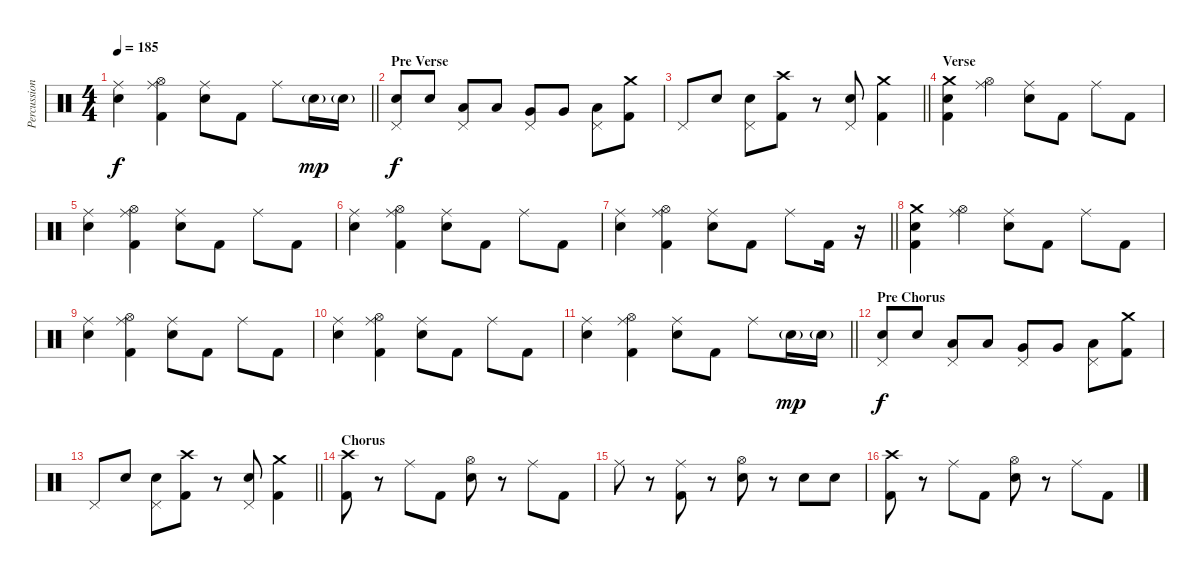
\track ("Percussion" "Percussion") {instrument percussion}
\staff {score}
\articulation defaults
\ts (4 4)
\tempo 185
\clef neutral
\barLineRight lightlight
\ks c
("Ride (middle)" "Electric Snare (hit)").4{dy f} ("Hi-Hat (open)" "Ride (middle)" "Kick (hit) 2").4 ("Ride (middle)" "Electric Snare (hit)").8 "Kick (hit) 2".8 "Ride (middle)".8 "Electric Snare (hit)"{g}.16{dy mp} "Electric Snare (hit)"{g}.16 |
\section ("" "Pre Verse")
("Pedal Hi-Hat (hit)" "Electric Snare (hit)").8{dy f} "Electric Snare (hit)".8 ("Pedal Hi-Hat (hit)" "Low Tom (hit)").8 "Low Tom (hit)".8 ("Pedal Hi-Hat (hit)" "Very Low Tom (hit)").8 "Very Low Tom (hit)".8 ("Pedal Hi-Hat (hit)" "Low Floor Tom (hit)").8 ("Crash medium (hit)" "Kick (hit) 2").8 |
\barLineRight lightlight "Pedal Hi-Hat (hit)".8 "Electric Snare (hit)".8
("Pedal Hi-Hat (hit)" "Electric Snare (hit)").8 ("Crash high (hit)" "Kick (hit) 2").8 r.8 ("Pedal Hi-Hat (hit)" "Electric Snare (hit)").8 ("Crash medium (hit)" "Kick (hit) 2").4 |
\section ("" "Verse")
("Crash medium (hit)" "Electric Snare (hit)" "Kick (hit) 2").4 ("Hi-Hat (open)" "Ride (middle)").4 ("Ride (middle)" "Electric Snare (hit)").8 "Kick (hit) 2".8 "Ride (middle)".8 "Kick (hit) 2".8 |
("Ride (middle)" "Electric Snare (hit)").4 ("Hi-Hat (open)" "Ride (middle)" "Kick (hit) 2").4 ("Ride (middle)" "Electric Snare (hit)").8 "Kick (hit) 2".8 "Ride (middle)".8 "Kick (hit) 2".8 |
("Ride (middle)" "Electric Snare (hit)").4 ("Hi-Hat (open)" "Ride (middle)" "Kick (hit) 2").4 ("Ride (middle)" "Electric Snare (hit)").8 "Kick (hit) 2".8 "Ride (middle)".8 "Kick (hit) 2".8 |
\barLineRight lightlight
("Ride (middle)" "Electric Snare (hit)").4 ("Hi-Hat (open)" "Ride (middle)" "Kick (hit) 2").4 ("Ride (middle)" "Electric Snare (hit)").8 "Kick (hit) 2".8 "Ride (middle)".8 "Kick (hit) 2".16 r.16 |
("Crash medium (hit)" "Electric Snare (hit)" "Kick (hit) 2").4 ("Hi-Hat (open)" "Ride (middle)").4 ("Ride (middle)" "Electric Snare (hit)").8 "Kick (hit) 2".8 "Ride (middle)".8 "Kick (hit) 2".8 |
("Ride (middle)" "Electric Snare (hit)").4 ("Hi-Hat (open)" "Ride (middle)" "Kick (hit) 2").4 ("Ride (middle)" "Electric Snare (hit)").8 "Kick (hit) 2".8 "Ride (middle)".8 "Kick (hit) 2".8 |
("Ride (middle)" "Electric Snare (hit)").4 ("Hi-Hat (open)" "Ride (middle)" "Kick (hit) 2").4 ("Ride (middle)" "Electric Snare (hit)").8 "Kick (hit) 2".8 "Ride (middle)".8 "Kick (hit) 2".8 |
\barLineRight lightlight
("Ride (middle)" "Electric Snare (hit)").4 ("Hi-Hat (open)" "Ride (middle)" "Kick (hit) 2").4 ("Ride (middle)" "Electric Snare (hit)").8 "Kick (hit) 2".8 "Ride (middle)".8 "Electric Snare (hit)"{g}.16{dy mp} "Electric Snare (hit)"{g}.16 |
\section ("" "Pre Chorus")
("Pedal Hi-Hat (hit)" "Electric Snare (hit)").8{dy f} "Electric Snare (hit)".8 ("Pedal Hi-Hat (hit)" "Low Tom (hit)").8 "Low Tom (hit)".8 ("Pedal Hi-Hat (hit)" "Very Low Tom (hit)").8 "Very Low Tom (hit)".8 ("Pedal Hi-Hat (hit)" "Low Floor Tom (hit)").8 ("Crash medium (hit)" "Kick (hit) 2").8 |
\barLineRight lightlight "Pedal Hi-Hat (hit)".8 "Electric Snare (hit)".8
("Pedal Hi-Hat (hit)" "Electric Snare (hit)").8 ("Crash high (hit)" "Kick (hit) 2").8 r.8 ("Pedal Hi-Hat (hit)" "Electric Snare (hit)").8 ("Crash medium (hit)" "Kick (hit) 2").4 |
\section ("" "Chorus")
("Crash high (hit)" "Kick (hit) 2").8 r.8 "Ride (middle)".8 "Kick (hit) 2".8 ("Hi-Hat (open)" "Electric Snare (hit)").8 r.8 "Ride (middle)".8 "Kick (hit) 2".8 |
"Ride (middle)".8 r.8 ("Ride (middle)" "Kick (hit) 2").8 r.8 ("Hi-Hat (open)" "Electric Snare (hit)").8 r.8 "Electric Snare (hit)".8 "Electric Snare (hit)".8 |
("Crash high (hit)" "Kick (hit) 2").8 r.8 "Ride (middle)".8 "Kick (hit) 2".8 ("Hi-Hat (open)" "Electric Snare (hit)").8 r.8 "Ride (middle)".8 "Kick (hit) 2".8
